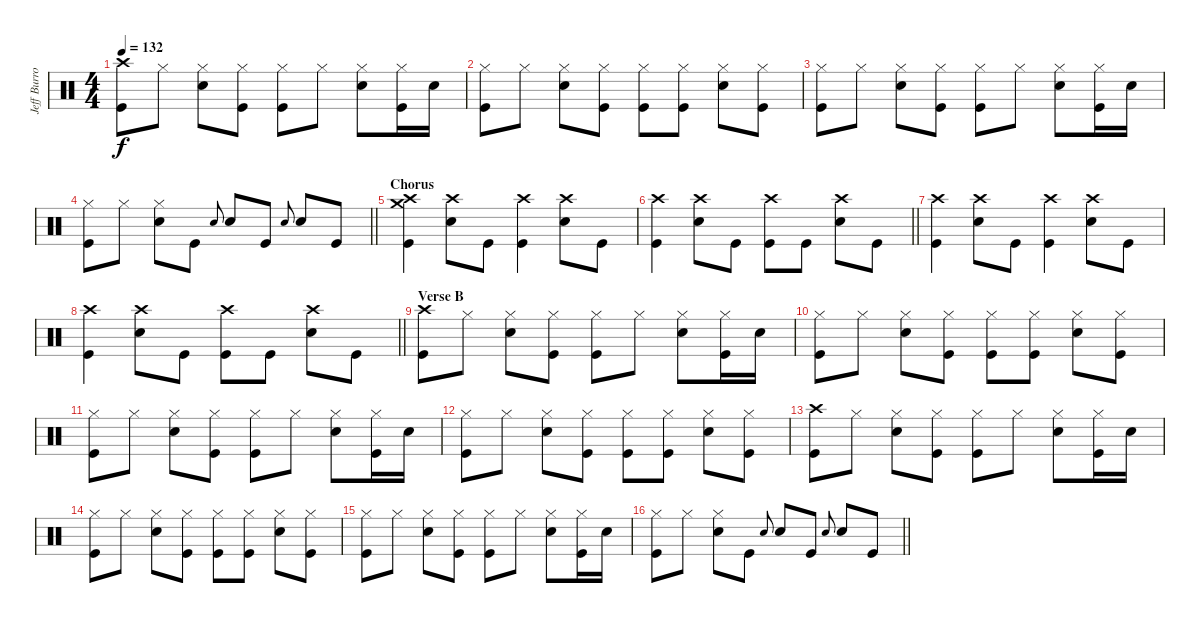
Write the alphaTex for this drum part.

\track ("Jeff Burrows (Percussion)" "Jeff Burro") {instrument percussion}
\staff {score}
\articulation defaults
\ts (4 4)
\tempo 132
\clef neutral
\ks c
("Crash high (hit)" "Kick (hit)").8{dy f} "Hi-Hat (closed)".8 ("Hi-Hat (closed)" "Snare (hit) 2").8 ("Hi-Hat (closed)" "Kick (hit)").8 ("Hi-Hat (closed)" "Kick (hit)").8 "Hi-Hat (closed)".8 ("Hi-Hat (closed)" "Snare (hit) 2").8 ("Hi-Hat (closed)" "Kick (hit)").16 "Snare (hit) 2".16 |
("Hi-Hat (closed)" "Kick (hit)").8 "Hi-Hat (closed)".8 ("Hi-Hat (closed)" "Snare (hit) 2").8 ("Hi-Hat (closed)" "Kick (hit)").8 ("Hi-Hat (closed)" "Kick (hit)").8 ("Hi-Hat (closed)" "Kick (hit)").8 ("Hi-Hat (closed)" "Snare (hit) 2").8 ("Hi-Hat (closed)" "Kick (hit)").8 |
("Hi-Hat (closed)" "Kick (hit)").8 "Hi-Hat (closed)".8 ("Hi-Hat (closed)" "Snare (hit) 2").8 ("Hi-Hat (closed)" "Kick (hit)").8 ("Hi-Hat (closed)" "Kick (hit)").8 "Hi-Hat (closed)".8 ("Hi-Hat (closed)" "Snare (hit) 2").8 ("Hi-Hat (closed)" "Kick (hit)").16 "Snare (hit) 2".16 |
\barLineRight lightlight
("Hi-Hat (closed)" "Kick (hit)").8 "Hi-Hat (closed)".8 ("Hi-Hat (closed)" "Snare (hit) 2").8 "Kick (hit)".8 "Snare (hit) 2".8{gr onbeat} "Snare (hit) 2".8 "Kick (hit)".8 "Snare (hit) 2".8{gr onbeat} "Snare (hit) 2".8 "Kick (hit)".8 |
\section ("" "Chorus")
("Crash medium (hit)" "Crash high (hit)" "Kick (hit)").4 ("Crash high (hit)" "Snare (hit) 2").8 "Kick (hit)".8 ("Crash high (hit)" "Kick (hit)").4 ("Crash high (hit)" "Snare (hit) 2").8 "Kick (hit)".8 |
\barLineRight lightlight
("Crash high (hit)" "Kick (hit)").4 ("Crash high (hit)" "Snare (hit) 2").8 "Kick (hit)".8 ("Crash high (hit)" "Kick (hit)").8 "Kick (hit)".8 ("Crash high (hit)" "Snare (hit) 2").8 "Kick (hit)".8 |
("Crash high (hit)" "Kick (hit)").4 ("Crash high (hit)" "Snare (hit) 2").8 "Kick (hit)".8 ("Crash high (hit)" "Kick (hit)").4 ("Crash high (hit)" "Snare (hit) 2").8 "Kick (hit)".8 |
\barLineRight lightlight
("Crash high (hit)" "Kick (hit)").4 ("Crash high (hit)" "Snare (hit) 2").8 "Kick (hit)".8 ("Crash high (hit)" "Kick (hit)").8 "Kick (hit)".8 ("Crash high (hit)" "Snare (hit) 2").8 "Kick (hit)".8 |
\section ("" "Verse B")
("Crash high (hit)" "Kick (hit)").8 "Hi-Hat (closed)".8 ("Hi-Hat (closed)" "Snare (hit) 2").8 ("Hi-Hat (closed)" "Kick (hit)").8 ("Hi-Hat (closed)" "Kick (hit)").8 "Hi-Hat (closed)".8 ("Hi-Hat (closed)" "Snare (hit) 2").8 ("Hi-Hat (closed)" "Kick (hit)").16 "Snare (hit) 2".16 |
("Hi-Hat (closed)" "Kick (hit)").8 "Hi-Hat (closed)".8 ("Hi-Hat (closed)" "Snare (hit) 2").8 ("Hi-Hat (closed)" "Kick (hit)").8 ("Hi-Hat (closed)" "Kick (hit)").8 ("Hi-Hat (closed)" "Kick (hit)").8 ("Hi-Hat (closed)" "Snare (hit) 2").8 ("Hi-Hat (closed)" "Kick (hit)").8 |
("Hi-Hat (closed)" "Kick (hit)").8 "Hi-Hat (closed)".8 ("Hi-Hat (closed)" "Snare (hit) 2").8 ("Hi-Hat (closed)" "Kick (hit)").8 ("Hi-Hat (closed)" "Kick (hit)").8 "Hi-Hat (closed)".8 ("Hi-Hat (closed)" "Snare (hit) 2").8 ("Hi-Hat (closed)" "Kick (hit)").16 "Snare (hit) 2".16 |
("Hi-Hat (closed)" "Kick (hit)").8 "Hi-Hat (closed)".8 ("Hi-Hat (closed)" "Snare (hit) 2").8 ("Hi-Hat (closed)" "Kick (hit)").8 ("Hi-Hat (closed)" "Kick (hit)").8 ("Hi-Hat (closed)" "Kick (hit)").8 ("Hi-Hat (closed)" "Snare (hit) 2").8 ("Hi-Hat (closed)" "Kick (hit)").8 |
("Crash high (hit)" "Kick (hit)").8 "Hi-Hat (closed)".8 ("Hi-Hat (closed)" "Snare (hit) 2").8 ("Hi-Hat (closed)" "Kick (hit)").8 ("Hi-Hat (closed)" "Kick (hit)").8 "Hi-Hat (closed)".8 ("Hi-Hat (closed)" "Snare (hit) 2").8 ("Hi-Hat (closed)" "Kick (hit)").16 "Snare (hit) 2".16 |
("Hi-Hat (closed)" "Kick (hit)").8 "Hi-Hat (closed)".8 ("Hi-Hat (closed)" "Snare (hit) 2").8 ("Hi-Hat (closed)" "Kick (hit)").8 ("Hi-Hat (closed)" "Kick (hit)").8 ("Hi-Hat (closed)" "Kick (hit)").8 ("Hi-Hat (closed)" "Snare (hit) 2").8 ("Hi-Hat (closed)" "Kick (hit)").8 |
("Hi-Hat (closed)" "Kick (hit)").8 "Hi-Hat (closed)".8 ("Hi-Hat (closed)" "Snare (hit) 2").8 ("Hi-Hat (closed)" "Kick (hit)").8 ("Hi-Hat (closed)" "Kick (hit)").8 "Hi-Hat (closed)".8 ("Hi-Hat (closed)" "Snare (hit) 2").8 ("Hi-Hat (closed)" "Kick (hit)").16 "Snare (hit) 2".16 |
\barLineRight lightlight
("Hi-Hat (closed)" "Kick (hit)").8 "Hi-Hat (closed)".8 ("Hi-Hat (closed)" "Snare (hit) 2").8 "Kick (hit)".8 "Snare (hit) 2".8{gr onbeat} "Snare (hit) 2".8 "Kick (hit)".8 "Snare (hit) 2".8{gr onbeat} "Snare (hit) 2".8 "Kick (hit)".8
